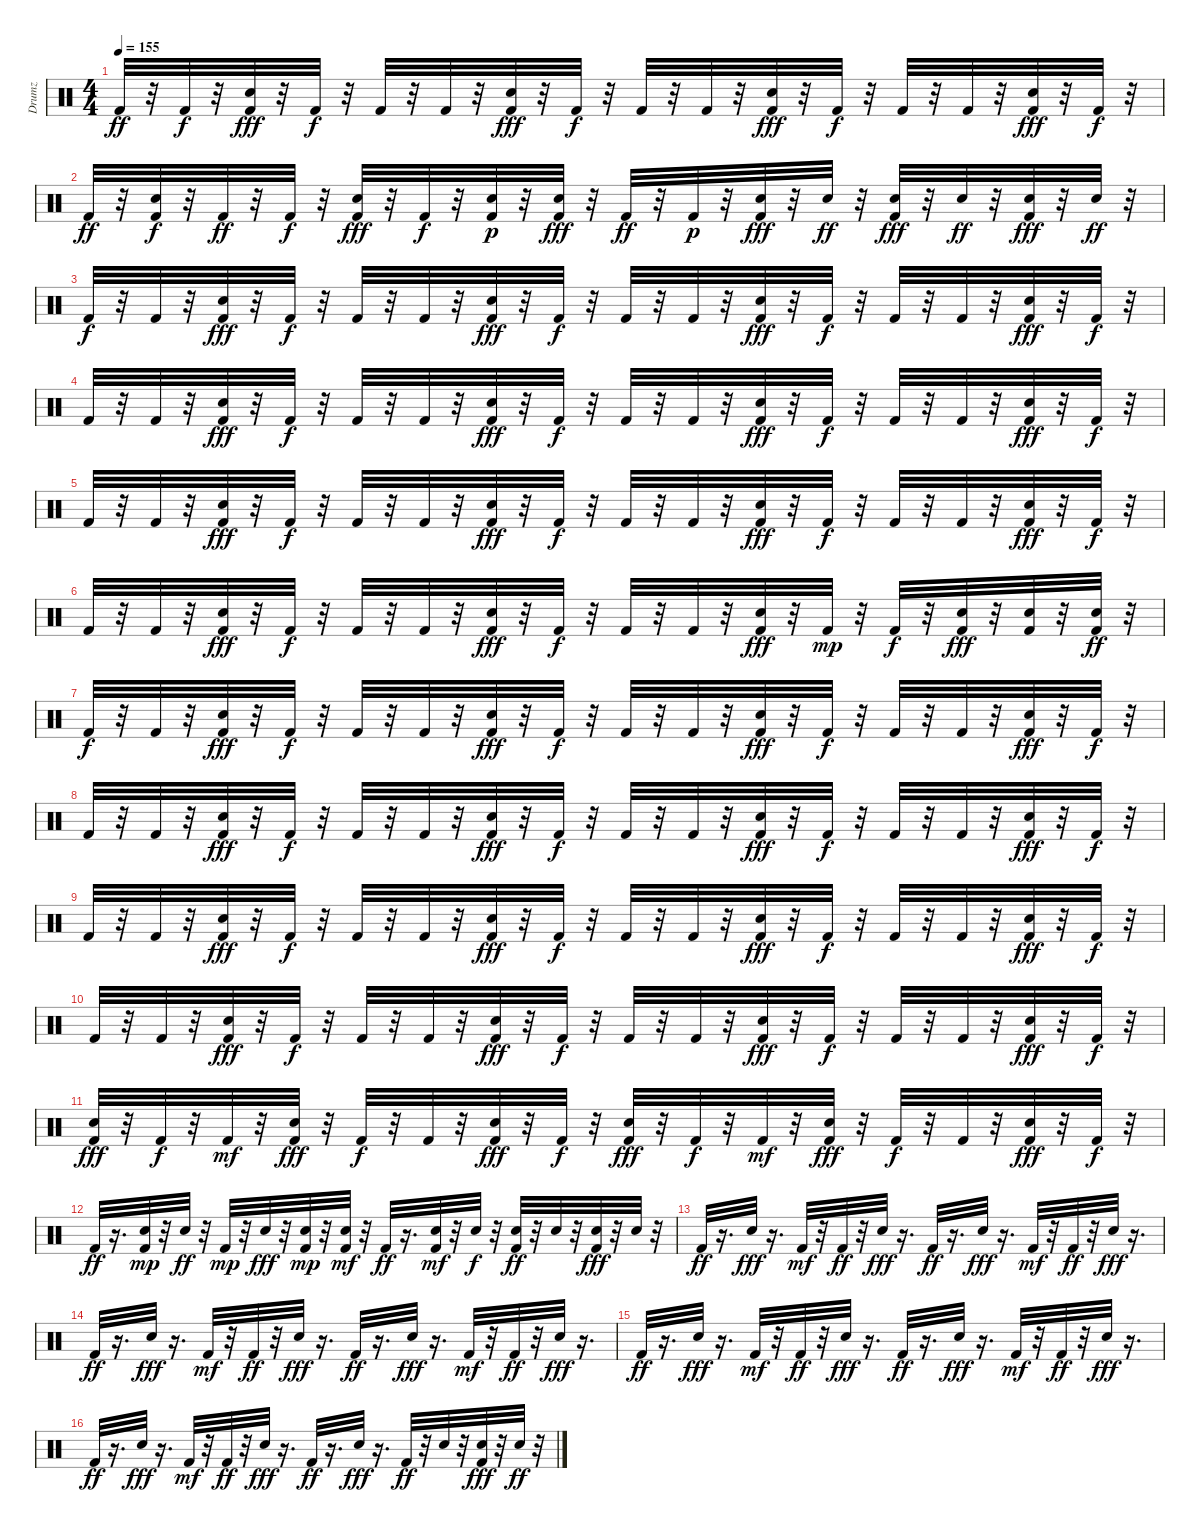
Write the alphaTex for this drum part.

\track ("Drumz" "Drumz") {instrument percussion}
\staff {score}
\articulation defaults
\ts (4 4)
\tempo 155
\clef neutral
\ks c "Kick (hit) 2".32{dy ff}
r.32 "Kick (hit) 2".32{dy f} r.32 ("Kick (hit) 2" "Snare (hit) 2").32{dy fff} r.32 "Kick (hit) 2".32{dy f} r.32 "Kick (hit) 2".32 r.32 "Kick (hit) 2".32 r.32 ("Kick (hit) 2" "Snare (hit) 2").32{dy fff} r.32 "Kick (hit) 2".32{dy f} r.32 "Kick (hit) 2".32 r.32 "Kick (hit) 2".32 r.32 ("Kick (hit) 2" "Snare (hit) 2").32{dy fff} r.32 "Kick (hit) 2".32{dy f} r.32 "Kick (hit) 2".32 r.32 "Kick (hit) 2".32 r.32 ("Kick (hit) 2" "Snare (hit) 2").32{dy fff} r.32 "Kick (hit) 2".32{dy f} r.32 |
"Kick (hit) 2".32{dy ff} r.32 ("Kick (hit) 2" "Snare (hit) 2").32{dy f} r.32 "Kick (hit) 2".32{dy ff} r.32 "Kick (hit) 2".32{dy f} r.32 ("Kick (hit) 2" "Snare (hit) 2").32{dy fff} r.32 "Kick (hit) 2".32{dy f} r.32 ("Kick (hit) 2" "Snare (hit) 2").32{dy p} r.32 ("Kick (hit) 2" "Snare (hit) 2").32{dy fff} r.32 "Kick (hit) 2".32{dy ff} r.32 "Kick (hit) 2".32{dy p} r.32 ("Kick (hit) 2" "Snare (hit) 2").32{dy fff} r.32 "Snare (hit) 2".32{dy ff} r.32 ("Kick (hit) 2" "Snare (hit) 2").32{dy fff} r.32 "Snare (hit) 2".32{dy ff} r.32 ("Kick (hit) 2" "Snare (hit) 2").32{dy fff} r.32 "Snare (hit) 2".32{dy ff} r.32 |
"Kick (hit) 2".32{dy f} r.32 "Kick (hit) 2".32 r.32 ("Kick (hit) 2" "Snare (hit) 2").32{dy fff} r.32 "Kick (hit) 2".32{dy f} r.32 "Kick (hit) 2".32 r.32 "Kick (hit) 2".32 r.32 ("Kick (hit) 2" "Snare (hit) 2").32{dy fff} r.32 "Kick (hit) 2".32{dy f} r.32 "Kick (hit) 2".32 r.32 "Kick (hit) 2".32 r.32 ("Kick (hit) 2" "Snare (hit) 2").32{dy fff} r.32 "Kick (hit) 2".32{dy f} r.32 "Kick (hit) 2".32 r.32 "Kick (hit) 2".32 r.32 ("Kick (hit) 2" "Snare (hit) 2").32{dy fff} r.32 "Kick (hit) 2".32{dy f} r.32 |
"Kick (hit) 2".32 r.32 "Kick (hit) 2".32 r.32 ("Kick (hit) 2" "Snare (hit) 2").32{dy fff} r.32 "Kick (hit) 2".32{dy f} r.32 "Kick (hit) 2".32 r.32 "Kick (hit) 2".32 r.32 ("Kick (hit) 2" "Snare (hit) 2").32{dy fff} r.32 "Kick (hit) 2".32{dy f} r.32 "Kick (hit) 2".32 r.32 "Kick (hit) 2".32 r.32 ("Kick (hit) 2" "Snare (hit) 2").32{dy fff} r.32 "Kick (hit) 2".32{dy f} r.32 "Kick (hit) 2".32 r.32 "Kick (hit) 2".32 r.32 ("Kick (hit) 2" "Snare (hit) 2").32{dy fff} r.32 "Kick (hit) 2".32{dy f} r.32 |
"Kick (hit) 2".32 r.32 "Kick (hit) 2".32 r.32 ("Kick (hit) 2" "Snare (hit) 2").32{dy fff} r.32 "Kick (hit) 2".32{dy f} r.32 "Kick (hit) 2".32 r.32 "Kick (hit) 2".32 r.32 ("Kick (hit) 2" "Snare (hit) 2").32{dy fff} r.32 "Kick (hit) 2".32{dy f} r.32 "Kick (hit) 2".32 r.32 "Kick (hit) 2".32 r.32 ("Kick (hit) 2" "Snare (hit) 2").32{dy fff} r.32 "Kick (hit) 2".32{dy f} r.32 "Kick (hit) 2".32 r.32 "Kick (hit) 2".32 r.32 ("Kick (hit) 2" "Snare (hit) 2").32{dy fff} r.32 "Kick (hit) 2".32{dy f} r.32 |
"Kick (hit) 2".32 r.32 "Kick (hit) 2".32 r.32 ("Kick (hit) 2" "Snare (hit) 2").32{dy fff} r.32 "Kick (hit) 2".32{dy f} r.32 "Kick (hit) 2".32 r.32 "Kick (hit) 2".32 r.32 ("Kick (hit) 2" "Snare (hit) 2").32{dy fff} r.32 "Kick (hit) 2".32{dy f} r.32 "Kick (hit) 2".32 r.32 "Kick (hit) 2".32 r.32 ("Kick (hit) 2" "Snare (hit) 2").32{dy fff} r.32 "Kick (hit) 2".32{dy mp} r.32 "Kick (hit) 2".32{dy f} r.32 ("Snare (hit) 2" "Kick (hit) 2").32{dy fff} r.32 ("Kick (hit) 2" "Snare (hit) 2").32 r.32 ("Kick (hit) 2" "Snare (hit) 2").32{dy ff} r.32 |
"Kick (hit) 2".32{dy f} r.32 "Kick (hit) 2".32 r.32 ("Kick (hit) 2" "Snare (hit) 2").32{dy fff} r.32 "Kick (hit) 2".32{dy f} r.32 "Kick (hit) 2".32 r.32 "Kick (hit) 2".32 r.32 ("Kick (hit) 2" "Snare (hit) 2").32{dy fff} r.32 "Kick (hit) 2".32{dy f} r.32 "Kick (hit) 2".32 r.32 "Kick (hit) 2".32 r.32 ("Kick (hit) 2" "Snare (hit) 2").32{dy fff} r.32 "Kick (hit) 2".32{dy f} r.32 "Kick (hit) 2".32 r.32 "Kick (hit) 2".32 r.32 ("Kick (hit) 2" "Snare (hit) 2").32{dy fff} r.32 "Kick (hit) 2".32{dy f} r.32 |
"Kick (hit) 2".32 r.32 "Kick (hit) 2".32 r.32 ("Kick (hit) 2" "Snare (hit) 2").32{dy fff} r.32 "Kick (hit) 2".32{dy f} r.32 "Kick (hit) 2".32 r.32 "Kick (hit) 2".32 r.32 ("Kick (hit) 2" "Snare (hit) 2").32{dy fff} r.32 "Kick (hit) 2".32{dy f} r.32 "Kick (hit) 2".32 r.32 "Kick (hit) 2".32 r.32 ("Kick (hit) 2" "Snare (hit) 2").32{dy fff} r.32 "Kick (hit) 2".32{dy f} r.32 "Kick (hit) 2".32 r.32 "Kick (hit) 2".32 r.32 ("Kick (hit) 2" "Snare (hit) 2").32{dy fff} r.32 "Kick (hit) 2".32{dy f} r.32 |
"Kick (hit) 2".32 r.32 "Kick (hit) 2".32 r.32 ("Kick (hit) 2" "Snare (hit) 2").32{dy fff} r.32 "Kick (hit) 2".32{dy f} r.32 "Kick (hit) 2".32 r.32 "Kick (hit) 2".32 r.32 ("Kick (hit) 2" "Snare (hit) 2").32{dy fff} r.32 "Kick (hit) 2".32{dy f} r.32 "Kick (hit) 2".32 r.32 "Kick (hit) 2".32 r.32 ("Kick (hit) 2" "Snare (hit) 2").32{dy fff} r.32 "Kick (hit) 2".32{dy f} r.32 "Kick (hit) 2".32 r.32 "Kick (hit) 2".32 r.32 ("Kick (hit) 2" "Snare (hit) 2").32{dy fff} r.32 "Kick (hit) 2".32{dy f} r.32 |
"Kick (hit) 2".32 r.32 "Kick (hit) 2".32 r.32 ("Kick (hit) 2" "Snare (hit) 2").32{dy fff} r.32 "Kick (hit) 2".32{dy f} r.32 "Kick (hit) 2".32 r.32 "Kick (hit) 2".32 r.32 ("Kick (hit) 2" "Snare (hit) 2").32{dy fff} r.32 "Kick (hit) 2".32{dy f} r.32 "Kick (hit) 2".32 r.32 "Kick (hit) 2".32 r.32 ("Kick (hit) 2" "Snare (hit) 2").32{dy fff} r.32 "Kick (hit) 2".32{dy f} r.32 "Kick (hit) 2".32 r.32 "Kick (hit) 2".32 r.32 ("Kick (hit) 2" "Snare (hit) 2").32{dy fff} r.32 "Kick (hit) 2".32{dy f} r.32 |
("Kick (hit) 2" "Snare (hit) 2").32{dy fff} r.32 "Kick (hit) 2".32{dy f} r.32 "Kick (hit) 2".32{dy mf} r.32 ("Kick (hit) 2" "Snare (hit) 2").32{dy fff} r.32 "Kick (hit) 2".32{dy f} r.32 "Kick (hit) 2".32 r.32 ("Kick (hit) 2" "Snare (hit) 2").32{dy fff} r.32 "Kick (hit) 2".32{dy f} r.32 ("Kick (hit) 2" "Snare (hit) 2").32{dy fff} r.32 "Kick (hit) 2".32{dy f} r.32 "Kick (hit) 2".32{dy mf} r.32 ("Kick (hit) 2" "Snare (hit) 2").32{dy fff} r.32 "Kick (hit) 2".32{dy f} r.32 "Kick (hit) 2".32 r.32 ("Kick (hit) 2" "Snare (hit) 2").32{dy fff} r.32 "Kick (hit) 2".32{dy f} r.32 |
"Kick (hit) 2".32{dy ff} r.16{d} ("Kick (hit) 2" "Snare (hit) 2").32{dy mp} r.32 "Snare (hit) 2".32{dy ff} r.32 "Kick (hit) 2".32{dy mp} r.32 "Snare (hit) 2".32{dy fff} r.32 ("Snare (hit) 2" "Kick (hit) 2").32{dy mp} r.32 ("Snare (hit) 2" "Kick (hit) 2").32{dy mf} r.32 "Kick (hit) 2".32{dy ff} r.16{d} ("Kick (hit) 2" "Snare (hit) 2").32{dy mf} r.32 "Snare (hit) 2".32{dy f} r.32 ("Kick (hit) 2" "Snare (hit) 2").32{dy ff} r.32 "Snare (hit) 2".32 r.32 ("Kick (hit) 2" "Snare (hit) 2").32{dy fff} r.32 "Snare (hit) 2".32 r.32 |
"Kick (hit) 2".32{dy ff} r.16{d} "Snare (hit) 2".32{dy fff} r.16{d} "Kick (hit) 2".32{dy mf} r.32 "Kick (hit) 2".32{dy ff} r.32 "Snare (hit) 2".32{dy fff} r.16{d} "Kick (hit) 2".32{dy ff} r.16{d} "Snare (hit) 2".32{dy fff} r.16{d} "Kick (hit) 2".32{dy mf} r.32 "Kick (hit) 2".32{dy ff} r.32 "Snare (hit) 2".32{dy fff} r.16{d} |
"Kick (hit) 2".32{dy ff} r.16{d} "Snare (hit) 2".32{dy fff} r.16{d} "Kick (hit) 2".32{dy mf} r.32 "Kick (hit) 2".32{dy ff} r.32 "Snare (hit) 2".32{dy fff} r.16{d} "Kick (hit) 2".32{dy ff} r.16{d} "Snare (hit) 2".32{dy fff} r.16{d} "Kick (hit) 2".32{dy mf} r.32 "Kick (hit) 2".32{dy ff} r.32 "Snare (hit) 2".32{dy fff} r.16{d} |
"Kick (hit) 2".32{dy ff} r.16{d} "Snare (hit) 2".32{dy fff} r.16{d} "Kick (hit) 2".32{dy mf} r.32 "Kick (hit) 2".32{dy ff} r.32 "Snare (hit) 2".32{dy fff} r.16{d} "Kick (hit) 2".32{dy ff} r.16{d} "Snare (hit) 2".32{dy fff} r.16{d} "Kick (hit) 2".32{dy mf} r.32 "Kick (hit) 2".32{dy ff} r.32 "Snare (hit) 2".32{dy fff} r.16{d} |
"Kick (hit) 2".32{dy ff} r.16{d} "Snare (hit) 2".32{dy fff} r.16{d} "Kick (hit) 2".32{dy mf} r.32 "Kick (hit) 2".32{dy ff} r.32 "Snare (hit) 2".32{dy fff} r.16{d} "Kick (hit) 2".32{dy ff} r.16{d} "Snare (hit) 2".32{dy fff} r.16{d} "Kick (hit) 2".32{dy ff} r.32 "Snare (hit) 2".32 r.32 ("Kick (hit) 2" "Snare (hit) 2").32{dy fff} r.32 "Snare (hit) 2".32{dy ff} r.32
